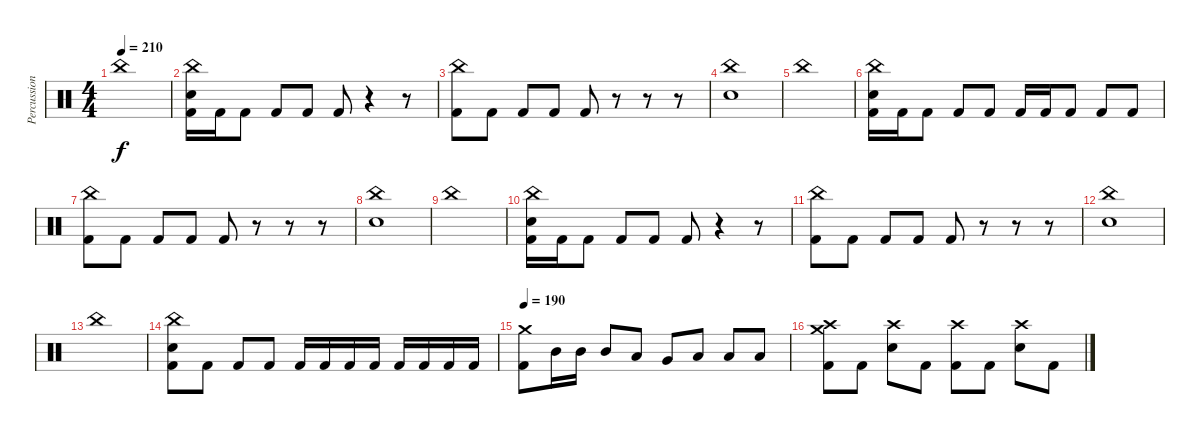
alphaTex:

\track ("Percussion" "Percussion") {instrument percussion}
\staff {score}
\articulation defaults
\ts (4 4)
\tempo 210
\clef neutral
\ks c "China (hit)".1{dy f}
|
("China (hit)" "Electric Snare (hit)" "Kick (hit) 2").16 "Kick (hit) 2".16 "Kick (hit) 2".8 "Kick (hit) 2".8 "Kick (hit) 2".8 "Kick (hit) 2".8 r.4 r.8 |
("China (hit)" "Kick (hit) 2").8 "Kick (hit) 2".8 "Kick (hit) 2".8 "Kick (hit) 2".8 "Kick (hit) 2".8 r.8 r.8 r.8 |
("China (hit)" "Electric Snare (hit)").1 |
"China (hit)".1 |
("China (hit)" "Electric Snare (hit)" "Kick (hit) 2").16 "Kick (hit) 2".16 "Kick (hit) 2".8 "Kick (hit) 2".8 "Kick (hit) 2".8 "Kick (hit) 2".16 "Kick (hit) 2".16 "Kick (hit) 2".8 "Kick (hit) 2".8 "Kick (hit) 2".8 |
("China (hit)" "Kick (hit) 2").8 "Kick (hit) 2".8 "Kick (hit) 2".8 "Kick (hit) 2".8 "Kick (hit) 2".8 r.8 r.8 r.8 |
("China (hit)" "Electric Snare (hit)").1 |
"China (hit)".1 |
("China (hit)" "Electric Snare (hit)" "Kick (hit) 2").16 "Kick (hit) 2".16 "Kick (hit) 2".8 "Kick (hit) 2".8 "Kick (hit) 2".8 "Kick (hit) 2".8 r.4 r.8 |
("China (hit)" "Kick (hit) 2").8 "Kick (hit) 2".8 "Kick (hit) 2".8 "Kick (hit) 2".8 "Kick (hit) 2".8 r.8 r.8 r.8 |
("China (hit)" "Electric Snare (hit)").1 |
"China (hit)".1 |
("China (hit)" "Electric Snare (hit)" "Kick (hit) 2").8 "Kick (hit) 2".8 "Kick (hit) 2".8 "Kick (hit) 2".8 "Kick (hit) 2".16 "Kick (hit) 2".16 "Kick (hit) 2".16 "Kick (hit) 2".16 "Kick (hit) 2".16 "Kick (hit) 2".16 "Kick (hit) 2".16 "Kick (hit) 2".16 |
\tempo 190
("Crash medium (hit)" "Kick (hit) 2").8 "Mid Tom (hit)".16 "Mid Tom (hit)".16 "Mid Tom (hit)".8 "Low Tom (hit)".8 "Very Low Tom (hit)".8 "Low Floor Tom (hit)".8 "Low Floor Tom (hit)".8 "Low Floor Tom (hit)".8 |
("Crash high (hit)" "Crash medium (hit)" "Kick (hit) 2").8 "Kick (hit) 2".8 ("Crash high (hit)" "Electric Snare (hit)").8 "Kick (hit) 2".8 ("Crash high (hit)" "Kick (hit) 2").8 "Kick (hit) 2".8 ("Crash high (hit)" "Electric Snare (hit)").8 "Kick (hit) 2".8
